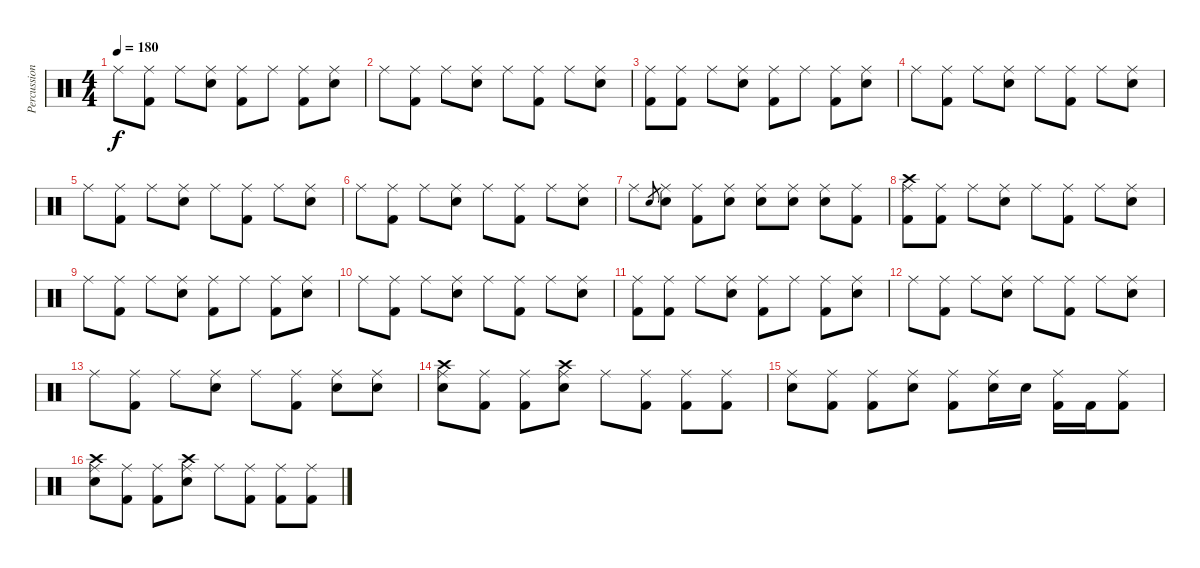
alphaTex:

\track ("Percussion" "Percussion") {instrument percussion}
\staff {score}
\articulation defaults
\ts (4 4)
\tempo 180
\clef neutral
\ks c "Ride (middle)".8{dy f}
("Ride (middle)" "Kick (hit) 2").8 "Ride (middle)".8 ("Ride (middle)" "Electric Snare (hit)").8 ("Ride (middle)" "Kick (hit) 2").8 "Ride (middle)".8 ("Ride (middle)" "Kick (hit) 2").8 ("Ride (middle)" "Electric Snare (hit)").8 |
"Ride (middle)".8 ("Ride (middle)" "Kick (hit) 2").8 "Ride (middle)".8 ("Ride (middle)" "Electric Snare (hit)").8 "Ride (middle)".8 ("Ride (middle)" "Kick (hit) 2").8 "Ride (middle)".8 ("Ride (middle)" "Electric Snare (hit)").8 |
("Ride (middle)" "Kick (hit) 2").8 ("Ride (middle)" "Kick (hit) 2").8 "Ride (middle)".8 ("Ride (middle)" "Electric Snare (hit)").8 ("Ride (middle)" "Kick (hit) 2").8 "Ride (middle)".8 ("Ride (middle)" "Kick (hit) 2").8 ("Ride (middle)" "Electric Snare (hit)").8 |
"Ride (middle)".8 ("Ride (middle)" "Kick (hit) 2").8 "Ride (middle)".8 ("Ride (middle)" "Electric Snare (hit)").8 "Ride (middle)".8 ("Ride (middle)" "Kick (hit) 2").8 "Ride (middle)".8 ("Ride (middle)" "Electric Snare (hit)").8 |
"Ride (middle)".8 ("Ride (middle)" "Kick (hit) 2").8 "Ride (middle)".8 ("Ride (middle)" "Electric Snare (hit)").8 "Ride (middle)".8 ("Ride (middle)" "Kick (hit) 2").8 "Ride (middle)".8 ("Ride (middle)" "Electric Snare (hit)").8 |
"Ride (middle)".8 ("Ride (middle)" "Kick (hit) 2").8 "Ride (middle)".8 ("Ride (middle)" "Electric Snare (hit)").8 "Ride (middle)".8 ("Ride (middle)" "Kick (hit) 2").8 "Ride (middle)".8 ("Ride (middle)" "Electric Snare (hit)").8 |
"Ride (middle)".8 "Electric Snare (hit)".8{gr} ("Ride (middle)" "Electric Snare (hit)").8 ("Ride (middle)" "Kick (hit) 2").8 ("Ride (middle)" "Electric Snare (hit)").8 ("Ride (middle)" "Electric Snare (hit)").8 ("Ride (middle)" "Electric Snare (hit)").8 ("Ride (middle)" "Electric Snare (hit)").8 ("Ride (middle)" "Kick (hit) 2").8 |
("Ride (middle)" "Crash high (hit)" "Kick (hit) 2").8 ("Ride (middle)" "Kick (hit) 2").8 "Ride (middle)".8 ("Ride (middle)" "Electric Snare (hit)").8 "Ride (middle)".8 ("Ride (middle)" "Kick (hit) 2").8 "Ride (middle)".8 ("Ride (middle)" "Electric Snare (hit)").8 |
"Ride (middle)".8 ("Ride (middle)" "Kick (hit) 2").8 "Ride (middle)".8 ("Ride (middle)" "Electric Snare (hit)").8 ("Ride (middle)" "Kick (hit) 2").8 "Ride (middle)".8 ("Ride (middle)" "Kick (hit) 2").8 ("Ride (middle)" "Electric Snare (hit)").8 |
"Ride (middle)".8 ("Ride (middle)" "Kick (hit) 2").8 "Ride (middle)".8 ("Ride (middle)" "Electric Snare (hit)").8 "Ride (middle)".8 ("Ride (middle)" "Kick (hit) 2").8 "Ride (middle)".8 ("Ride (middle)" "Electric Snare (hit)").8 |
("Ride (middle)" "Kick (hit) 2").8 ("Ride (middle)" "Kick (hit) 2").8 "Ride (middle)".8 ("Ride (middle)" "Electric Snare (hit)").8 ("Ride (middle)" "Kick (hit) 2").8 "Ride (middle)".8 ("Ride (middle)" "Kick (hit) 2").8 ("Ride (middle)" "Electric Snare (hit)").8 |
"Ride (middle)".8 ("Ride (middle)" "Kick (hit) 2").8 "Ride (middle)".8 ("Ride (middle)" "Electric Snare (hit)").8 "Ride (middle)".8 ("Ride (middle)" "Kick (hit) 2").8 "Ride (middle)".8 ("Ride (middle)" "Electric Snare (hit)").8 |
"Ride (middle)".8 ("Ride (middle)" "Kick (hit) 2").8 "Ride (middle)".8 ("Ride (middle)" "Electric Snare (hit)").8 "Ride (middle)".8 ("Ride (middle)" "Kick (hit) 2").8 ("Ride (middle)" "Electric Snare (hit)").8 ("Ride (middle)" "Electric Snare (hit)").8 |
("Ride (middle)" "Crash high (hit)" "Electric Snare (hit)").8 ("Ride (middle)" "Kick (hit) 2").8 ("Ride (middle)" "Kick (hit) 2").8 ("Ride (middle)" "Crash high (hit)" "Electric Snare (hit)").8 "Ride (middle)".8 ("Ride (middle)" "Kick (hit) 2").8 ("Ride (middle)" "Kick (hit) 2").8 ("Ride (middle)" "Kick (hit) 2").8 |
("Ride (middle)" "Electric Snare (hit)").8 ("Ride (middle)" "Kick (hit) 2").8 ("Ride (middle)" "Kick (hit) 2").8 ("Ride (middle)" "Electric Snare (hit)").8 ("Ride (middle)" "Kick (hit) 2").8 ("Ride (middle)" "Electric Snare (hit)").16 "Electric Snare (hit)".16 ("Ride (middle)" "Kick (hit) 2").16 "Kick (hit) 2".16 ("Ride (middle)" "Kick (hit) 2").8 |
("Ride (middle)" "Crash high (hit)" "Electric Snare (hit)").8 ("Ride (middle)" "Kick (hit) 2").8 ("Ride (middle)" "Kick (hit) 2").8 ("Ride (middle)" "Crash high (hit)" "Electric Snare (hit)").8 "Ride (middle)".8 ("Ride (middle)" "Kick (hit) 2").8 ("Ride (middle)" "Kick (hit) 2").8 ("Ride (middle)" "Kick (hit) 2").8
